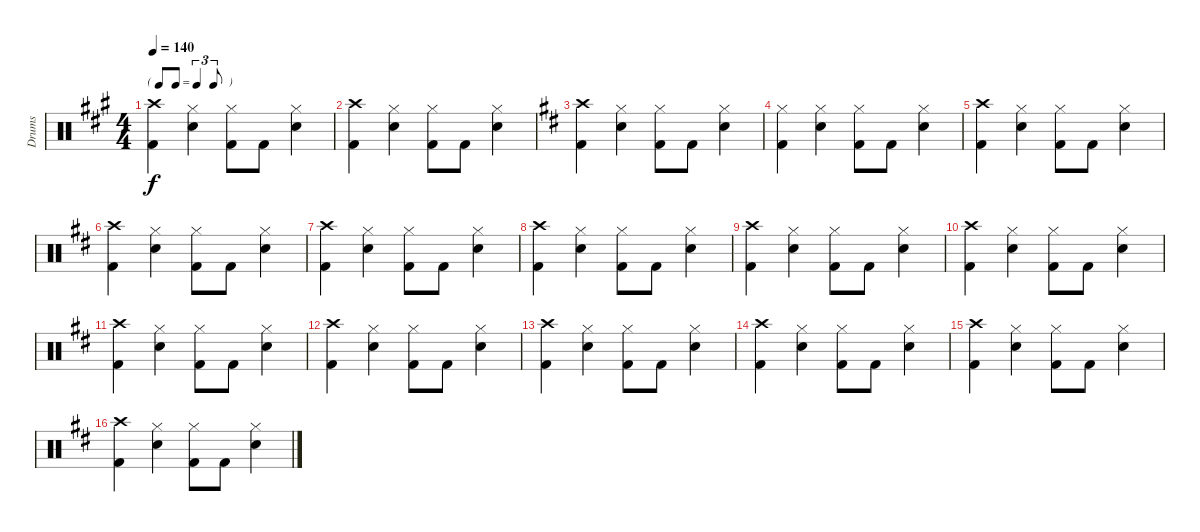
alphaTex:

\track ("Drums" "Drums") {instrument percussion}
\staff {score}
\articulation defaults
\ts (4 4)
\tf triplet8th
\tempo 140
\clef neutral
\ks f#minor
("Kick (hit) 2" "Crash high (hit)").4{dy f} ("Snare (hit) 2" "Hi-Hat (closed)").4 ("Kick (hit) 2" "Hi-Hat (closed)").8 "Kick (hit) 2".8 ("Snare (hit) 2" "Hi-Hat (closed)").4 |
("Kick (hit) 2" "Crash high (hit)").4 ("Snare (hit) 2" "Hi-Hat (closed)").4 ("Kick (hit) 2" "Hi-Hat (closed)").8 "Kick (hit) 2".8 ("Snare (hit) 2" "Hi-Hat (closed)").4 |
\ks bminor
("Kick (hit) 2" "Crash high (hit)").4 ("Snare (hit) 2" "Hi-Hat (closed)").4 ("Kick (hit) 2" "Hi-Hat (closed)").8 "Kick (hit) 2".8 ("Snare (hit) 2" "Hi-Hat (closed)").4 |
("Kick (hit) 2" "Hi-Hat (closed)").4 ("Snare (hit) 2" "Hi-Hat (closed)").4 ("Kick (hit) 2" "Hi-Hat (closed)").8 "Kick (hit) 2".8 ("Snare (hit) 2" "Hi-Hat (closed)").4 |
("Kick (hit) 2" "Crash high (hit)").4 ("Snare (hit) 2" "Hi-Hat (closed)").4 ("Kick (hit) 2" "Hi-Hat (closed)").8 "Kick (hit) 2".8 ("Snare (hit) 2" "Hi-Hat (closed)").4 |
("Kick (hit) 2" "Crash high (hit)").4 ("Snare (hit) 2" "Hi-Hat (closed)").4 ("Kick (hit) 2" "Hi-Hat (closed)").8 "Kick (hit) 2".8 ("Snare (hit) 2" "Hi-Hat (closed)").4 |
("Kick (hit) 2" "Crash high (hit)").4 ("Snare (hit) 2" "Hi-Hat (closed)").4 ("Kick (hit) 2" "Hi-Hat (closed)").8 "Kick (hit) 2".8 ("Snare (hit) 2" "Hi-Hat (closed)").4 |
("Kick (hit) 2" "Crash high (hit)").4 ("Snare (hit) 2" "Hi-Hat (closed)").4 ("Kick (hit) 2" "Hi-Hat (closed)").8 "Kick (hit) 2".8 ("Snare (hit) 2" "Hi-Hat (closed)").4 |
("Kick (hit) 2" "Crash high (hit)").4 ("Snare (hit) 2" "Hi-Hat (closed)").4 ("Kick (hit) 2" "Hi-Hat (closed)").8 "Kick (hit) 2".8 ("Snare (hit) 2" "Hi-Hat (closed)").4 |
("Kick (hit) 2" "Crash high (hit)").4 ("Snare (hit) 2" "Hi-Hat (closed)").4 ("Kick (hit) 2" "Hi-Hat (closed)").8 "Kick (hit) 2".8 ("Snare (hit) 2" "Hi-Hat (closed)").4 |
("Kick (hit) 2" "Crash high (hit)").4 ("Snare (hit) 2" "Hi-Hat (closed)").4 ("Kick (hit) 2" "Hi-Hat (closed)").8 "Kick (hit) 2".8 ("Snare (hit) 2" "Hi-Hat (closed)").4 |
("Kick (hit) 2" "Crash high (hit)").4 ("Snare (hit) 2" "Hi-Hat (closed)").4 ("Kick (hit) 2" "Hi-Hat (closed)").8 "Kick (hit) 2".8 ("Snare (hit) 2" "Hi-Hat (closed)").4 |
("Kick (hit) 2" "Crash high (hit)").4 ("Snare (hit) 2" "Hi-Hat (closed)").4 ("Kick (hit) 2" "Hi-Hat (closed)").8 "Kick (hit) 2".8 ("Snare (hit) 2" "Hi-Hat (closed)").4 |
("Kick (hit) 2" "Crash high (hit)").4 ("Snare (hit) 2" "Hi-Hat (closed)").4 ("Kick (hit) 2" "Hi-Hat (closed)").8 "Kick (hit) 2".8 ("Snare (hit) 2" "Hi-Hat (closed)").4 |
("Kick (hit) 2" "Crash high (hit)").4 ("Snare (hit) 2" "Hi-Hat (closed)").4 ("Kick (hit) 2" "Hi-Hat (closed)").8 "Kick (hit) 2".8 ("Snare (hit) 2" "Hi-Hat (closed)").4 |
("Kick (hit) 2" "Crash high (hit)").4 ("Snare (hit) 2" "Hi-Hat (closed)").4 ("Kick (hit) 2" "Hi-Hat (closed)").8 "Kick (hit) 2".8 ("Snare (hit) 2" "Hi-Hat (closed)").4
